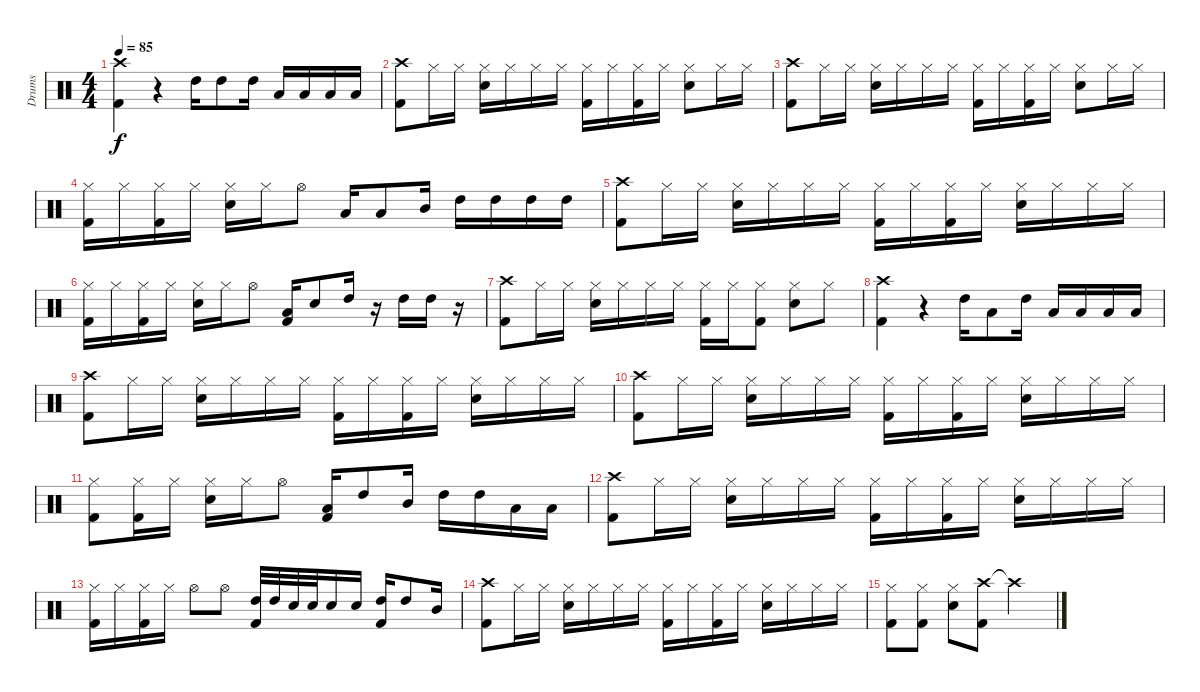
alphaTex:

\track ("Drums" "Drums") {instrument percussion}
\staff {score}
\articulation defaults
\ts (4 4)
\tempo 85
\clef neutral
\ks c
("Crash high (hit)" "Kick (hit) 2").4{dy f} r.4 "High Tom (hit)".16 "High Tom (hit)".8 "High Tom (hit)".16 "Low Tom (hit)".16 "Low Tom (hit)".16 "Low Tom (hit)".16 "Low Tom (hit)".16 |
("Crash high (hit)" "Kick (hit) 2").8 "Hi-Hat (closed)".16 "Hi-Hat (closed)".16 ("Hi-Hat (closed)" "Snare (hit) 2").16 "Hi-Hat (closed)".16 "Hi-Hat (closed)".16 "Hi-Hat (closed)".16 ("Hi-Hat (closed)" "Kick (hit) 2").16 "Hi-Hat (closed)".16 ("Hi-Hat (closed)" "Kick (hit) 2").16 "Hi-Hat (closed)".16 ("Hi-Hat (closed)" "Snare (hit) 2").8 "Hi-Hat (closed)".16 "Hi-Hat (closed)".16 |
("Crash high (hit)" "Kick (hit) 2").8 "Hi-Hat (closed)".16 "Hi-Hat (closed)".16 ("Hi-Hat (closed)" "Snare (hit) 2").16 "Hi-Hat (closed)".16 "Hi-Hat (closed)".16 "Hi-Hat (closed)".16 ("Hi-Hat (closed)" "Kick (hit) 2").16 "Hi-Hat (closed)".16 ("Hi-Hat (closed)" "Kick (hit) 2").16 "Hi-Hat (closed)".16 ("Hi-Hat (closed)" "Snare (hit) 2").8 "Hi-Hat (closed)".16 "Hi-Hat (closed)".16 |
("Hi-Hat (closed)" "Kick (hit) 2").16 "Hi-Hat (closed)".16 ("Hi-Hat (closed)" "Kick (hit) 2").16 "Hi-Hat (closed)".16 ("Hi-Hat (closed)" "Snare (hit) 2").16 "Hi-Hat (closed)".16 "Hi-Hat (open)".8 "Low Tom (hit)".16 "Low Tom (hit)".8 "Mid Tom (hit)".16 "High Tom (hit)".16 "High Tom (hit)".16 "High Tom (hit)".16 "High Tom (hit)".16 |
("Crash high (hit)" "Kick (hit) 2").8 "Hi-Hat (closed)".16 "Hi-Hat (closed)".16 ("Hi-Hat (closed)" "Snare (hit) 2").16 "Hi-Hat (closed)".16 "Hi-Hat (closed)".16 "Hi-Hat (closed)".16 ("Hi-Hat (closed)" "Kick (hit) 2").16 "Hi-Hat (closed)".16 ("Hi-Hat (closed)" "Kick (hit) 2").16 "Hi-Hat (closed)".16 ("Hi-Hat (closed)" "Snare (hit) 2").16 "Hi-Hat (closed)".16 "Hi-Hat (closed)".16 "Hi-Hat (closed)".16 |
("Hi-Hat (closed)" "Kick (hit) 2").16 "Hi-Hat (closed)".16 ("Hi-Hat (closed)" "Kick (hit) 2").16 "Hi-Hat (closed)".16 ("Hi-Hat (closed)" "Snare (hit) 2").16 "Hi-Hat (closed)".16 "Hi-Hat (open)".8 ("Low Tom (hit)" "Kick (hit) 2").16 "Snare (hit) 2".8 "High Tom (hit)".16 r.16 "High Tom (hit)".16 "High Tom (hit)".16 r.16 |
("Crash high (hit)" "Kick (hit) 2").8 "Hi-Hat (closed)".16 "Hi-Hat (closed)".16 ("Hi-Hat (closed)" "Snare (hit) 2").16 "Hi-Hat (closed)".16 "Hi-Hat (closed)".16 "Hi-Hat (closed)".16 ("Hi-Hat (closed)" "Kick (hit) 2").16 "Hi-Hat (closed)".16 ("Hi-Hat (closed)" "Kick (hit) 2").8 ("Hi-Hat (closed)" "Snare (hit) 2").8 "Hi-Hat (closed)".8 |
("Crash high (hit)" "Kick (hit) 2").4 r.4 "High Tom (hit)".16 "Low Tom (hit)".8 "High Tom (hit)".16 "Low Tom (hit)".16 "Low Tom (hit)".16 "Low Tom (hit)".16 "Low Tom (hit)".16 |
("Crash high (hit)" "Kick (hit) 2").8 "Hi-Hat (closed)".16 "Hi-Hat (closed)".16 ("Hi-Hat (closed)" "Snare (hit) 2").16 "Hi-Hat (closed)".16 "Hi-Hat (closed)".16 "Hi-Hat (closed)".16 ("Hi-Hat (closed)" "Kick (hit) 2").16 "Hi-Hat (closed)".16 ("Hi-Hat (closed)" "Kick (hit) 2").16 "Hi-Hat (closed)".16 ("Hi-Hat (closed)" "Snare (hit) 2").16 "Hi-Hat (closed)".16 "Hi-Hat (closed)".16 "Hi-Hat (closed)".16 |
("Crash high (hit)" "Kick (hit) 2").8 "Hi-Hat (closed)".16 "Hi-Hat (closed)".16 ("Hi-Hat (closed)" "Snare (hit) 2").16 "Hi-Hat (closed)".16 "Hi-Hat (closed)".16 "Hi-Hat (closed)".16 ("Hi-Hat (closed)" "Kick (hit) 2").16 "Hi-Hat (closed)".16 ("Hi-Hat (closed)" "Kick (hit) 2").16 "Hi-Hat (closed)".16 ("Hi-Hat (closed)" "Snare (hit) 2").16 "Hi-Hat (closed)".16 "Hi-Hat (closed)".16 "Hi-Hat (closed)".16 |
("Hi-Hat (closed)" "Kick (hit) 2").8 ("Hi-Hat (closed)" "Kick (hit) 2").16 "Hi-Hat (closed)".16 ("Hi-Hat (closed)" "Snare (hit) 2").16 "Hi-Hat (closed)".16 "Hi-Hat (open)".8 ("Low Tom (hit)" "Kick (hit) 2").16 "High Tom (hit)".8 "Mid Tom (hit)".16 "High Tom (hit)".16 "High Tom (hit)".16 "Low Tom (hit)".16 "Low Tom (hit)".16 |
("Crash high (hit)" "Kick (hit) 2").8 "Hi-Hat (closed)".16 "Hi-Hat (closed)".16 ("Hi-Hat (closed)" "Snare (hit) 2").16 "Hi-Hat (closed)".16 "Hi-Hat (closed)".16 "Hi-Hat (closed)".16 ("Hi-Hat (closed)" "Kick (hit) 2").16 "Hi-Hat (closed)".16 ("Hi-Hat (closed)" "Kick (hit) 2").16 "Hi-Hat (closed)".16 ("Hi-Hat (closed)" "Snare (hit) 2").16 "Hi-Hat (closed)".16 "Hi-Hat (closed)".16 "Hi-Hat (closed)".16 |
("Hi-Hat (closed)" "Kick (hit) 2").16 "Hi-Hat (closed)".16 ("Hi-Hat (closed)" "Kick (hit) 2").16 "Hi-Hat (closed)".16 "Hi-Hat (open)".8 "Hi-Hat (open)".8 ("High Tom (hit)" "Kick (hit) 2").32 "High Tom (hit)".32 "Snare (hit) 2".32 "Snare (hit) 2".32 "Snare (hit) 2".16 "Snare (hit) 2".16 ("High Tom (hit)" "Kick (hit) 2").16 "High Tom (hit)".8 "Mid Tom (hit)".16 |
("Crash high (hit)" "Kick (hit) 2").8 "Hi-Hat (closed)".16 "Hi-Hat (closed)".16 ("Hi-Hat (closed)" "Snare (hit) 2").16 "Hi-Hat (closed)".16 "Hi-Hat (closed)".16 "Hi-Hat (closed)".16 ("Hi-Hat (closed)" "Kick (hit) 2").16 "Hi-Hat (closed)".16 ("Hi-Hat (closed)" "Kick (hit) 2").16 "Hi-Hat (closed)".16 ("Hi-Hat (closed)" "Snare (hit) 2").16 "Hi-Hat (closed)".16 "Hi-Hat (closed)".16 "Hi-Hat (closed)".16 |
("Hi-Hat (closed)" "Kick (hit) 2").8 ("Hi-Hat (closed)" "Kick (hit) 2").8 ("Hi-Hat (closed)" "Snare (hit) 2").8 ("Crash high (hit)" "Kick (hit) 2").8 "Crash high (hit)"{t}.2
